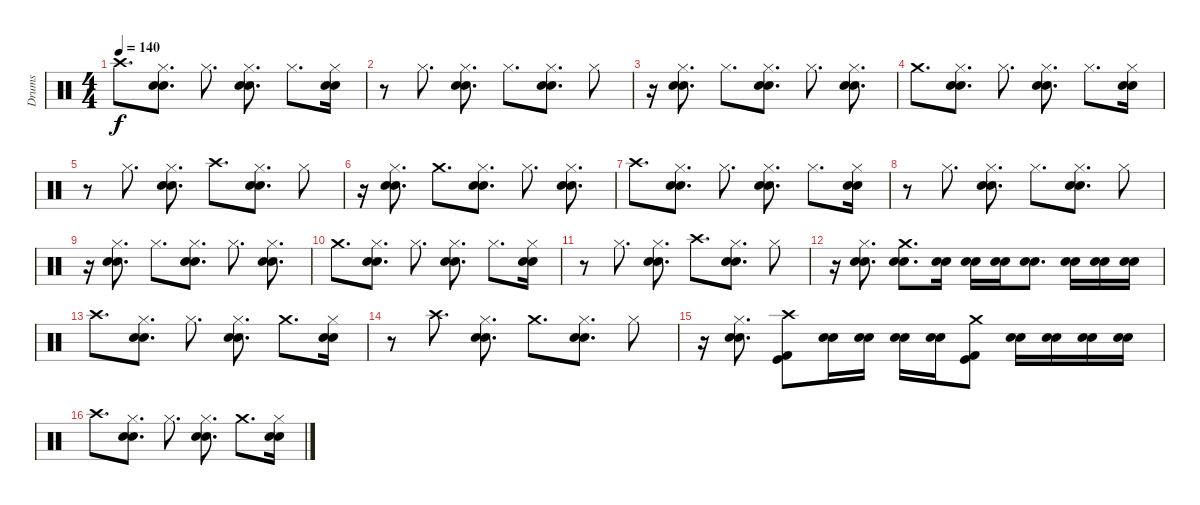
\track ("Drums" "Drums") {instrument percussion}
\staff {score}
\articulation defaults
\ts (4 4)
\tempo 140
\clef neutral
\ks c "Crash high (hit)".8{d dy f}
("Hi-Hat (closed)" "Electric Snare (hit)" "Snare (hit) 2").8{d} "Hi-Hat (closed)".8{d} ("Hi-Hat (closed)" "Electric Snare (hit)" "Snare (hit) 2").8{d} "Hi-Hat (closed)".8{d} ("Hi-Hat (closed)" "Electric Snare (hit)" "Snare (hit) 2").16 |
r.8 "Hi-Hat (closed)".8{d} ("Hi-Hat (closed)" "Electric Snare (hit)" "Snare (hit) 2").8{d} "Hi-Hat (closed)".8{d} ("Hi-Hat (closed)" "Electric Snare (hit)" "Snare (hit) 2").8{d} "Hi-Hat (closed)".8 |
r.16 ("Hi-Hat (closed)" "Electric Snare (hit)" "Snare (hit) 2").8{d} "Hi-Hat (closed)".8{d} ("Hi-Hat (closed)" "Electric Snare (hit)" "Snare (hit) 2").8{d} "Hi-Hat (closed)".8{d} ("Hi-Hat (closed)" "Electric Snare (hit)" "Snare (hit) 2").8{d} |
"Crash medium (hit)".8{d} ("Hi-Hat (closed)" "Electric Snare (hit)" "Snare (hit) 2").8{d} "Hi-Hat (closed)".8{d} ("Hi-Hat (closed)" "Electric Snare (hit)" "Snare (hit) 2").8{d} "Hi-Hat (closed)".8{d} ("Hi-Hat (closed)" "Electric Snare (hit)" "Snare (hit) 2").16 |
r.8 "Hi-Hat (closed)".8{d} ("Hi-Hat (closed)" "Electric Snare (hit)" "Snare (hit) 2").8{d} "Crash high (hit)".8{d} ("Hi-Hat (closed)" "Electric Snare (hit)" "Snare (hit) 2").8{d} "Hi-Hat (closed)".8 |
r.16 ("Hi-Hat (closed)" "Electric Snare (hit)" "Snare (hit) 2").8{d} "Crash medium (hit)".8{d} ("Hi-Hat (closed)" "Electric Snare (hit)" "Snare (hit) 2").8{d} "Hi-Hat (closed)".8{d} ("Hi-Hat (closed)" "Electric Snare (hit)" "Snare (hit) 2").8{d} |
"Crash high (hit)".8{d} ("Hi-Hat (closed)" "Electric Snare (hit)" "Snare (hit) 2").8{d} "Hi-Hat (closed)".8{d} ("Hi-Hat (closed)" "Electric Snare (hit)" "Snare (hit) 2").8{d} "Hi-Hat (closed)".8{d} ("Hi-Hat (closed)" "Electric Snare (hit)" "Snare (hit) 2").16 |
r.8 "Hi-Hat (closed)".8{d} ("Hi-Hat (closed)" "Electric Snare (hit)" "Snare (hit) 2").8{d} "Hi-Hat (closed)".8{d} ("Hi-Hat (closed)" "Electric Snare (hit)" "Snare (hit) 2").8{d} "Hi-Hat (closed)".8 |
r.16 ("Hi-Hat (closed)" "Electric Snare (hit)" "Snare (hit) 2").8{d} "Hi-Hat (closed)".8{d} ("Hi-Hat (closed)" "Electric Snare (hit)" "Snare (hit) 2").8{d} "Hi-Hat (closed)".8{d} ("Hi-Hat (closed)" "Electric Snare (hit)" "Snare (hit) 2").8{d} |
"Crash medium (hit)".8{d} ("Hi-Hat (closed)" "Electric Snare (hit)" "Snare (hit) 2").8{d} "Hi-Hat (closed)".8{d} ("Hi-Hat (closed)" "Electric Snare (hit)" "Snare (hit) 2").8{d} "Hi-Hat (closed)".8{d} ("Hi-Hat (closed)" "Electric Snare (hit)" "Snare (hit) 2").16 |
r.8 "Hi-Hat (closed)".8{d} ("Hi-Hat (closed)" "Electric Snare (hit)" "Snare (hit) 2").8{d} "Crash high (hit)".8{d} ("Hi-Hat (closed)" "Electric Snare (hit)" "Snare (hit) 2").8{d} "Hi-Hat (closed)".8 |
r.16 ("Hi-Hat (closed)" "Electric Snare (hit)" "Snare (hit) 2").8{d} ("Crash medium (hit)" "Electric Snare (hit)" "Snare (hit) 2").8{d} ("Electric Snare (hit)" "Snare (hit) 2").16 ("Electric Snare (hit)" "Snare (hit) 2").16 ("Electric Snare (hit)" "Snare (hit) 2").16 ("Electric Snare (hit)" "Snare (hit) 2").8{d} ("Electric Snare (hit)" "Snare (hit) 2").16 ("Electric Snare (hit)" "Snare (hit) 2").16 ("Electric Snare (hit)" "Snare (hit) 2").16 |
"Crash high (hit)".8{d} ("Hi-Hat (closed)" "Electric Snare (hit)" "Snare (hit) 2").8{d} "Hi-Hat (closed)".8{d} ("Hi-Hat (closed)" "Electric Snare (hit)" "Snare (hit) 2").8{d} "Crash medium (hit)".8{d} ("Hi-Hat (closed)" "Electric Snare (hit)" "Snare (hit) 2").16 |
r.8 "Crash high (hit)".8{d} ("Hi-Hat (closed)" "Electric Snare (hit)" "Snare (hit) 2").8{d} "Crash medium (hit)".8{d} ("Hi-Hat (closed)" "Electric Snare (hit)" "Snare (hit) 2").8{d} "Hi-Hat (closed)".8 |
r.16 ("Hi-Hat (closed)" "Electric Snare (hit)" "Snare (hit) 2").8{d} ("Crash high (hit)" "Kick (hit) 2" "Kick (hit)").8 ("Electric Snare (hit)" "Snare (hit) 2").16 ("Electric Snare (hit)" "Snare (hit) 2").16 ("Electric Snare (hit)" "Snare (hit) 2").16 ("Electric Snare (hit)" "Snare (hit) 2").16 ("Crash medium (hit)" "Kick (hit) 2" "Kick (hit)").8 ("Electric Snare (hit)" "Snare (hit) 2").16 ("Electric Snare (hit)" "Snare (hit) 2").16 ("Electric Snare (hit)" "Snare (hit) 2").16 ("Electric Snare (hit)" "Snare (hit) 2").16 |
"Crash high (hit)".8{d} ("Hi-Hat (closed)" "Electric Snare (hit)" "Snare (hit) 2").8{d} "Hi-Hat (closed)".8{d} ("Hi-Hat (closed)" "Electric Snare (hit)" "Snare (hit) 2").8{d} "Crash medium (hit)".8{d} ("Hi-Hat (closed)" "Electric Snare (hit)" "Snare (hit) 2").16
